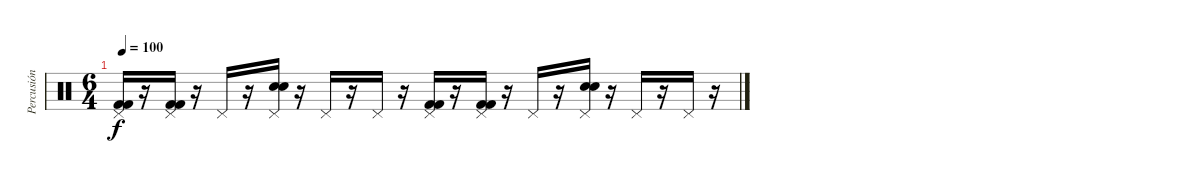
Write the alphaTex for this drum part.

\track ("Percusión" "Percusión") {instrument percussion}
\staff {score}
\articulation defaults
\ts (6 4)
\tempo 100
\clef neutral
\ks c
("Pedal Hi-Hat (hit)" "Kick (hit) 2" "Kick (hit) 2").16{dy f} r.16 ("Pedal Hi-Hat (hit)" "Kick (hit) 2" "Kick (hit) 2").16 r.16 "Pedal Hi-Hat (hit)".16 r.16 ("Pedal Hi-Hat (hit)" "Electric Snare (hit)" "Electric Snare (hit)").16 r.16 "Pedal Hi-Hat (hit)".16 r.16 "Pedal Hi-Hat (hit)".16 r.16 ("Pedal Hi-Hat (hit)" "Kick (hit) 2" "Kick (hit) 2").16 r.16 ("Pedal Hi-Hat (hit)" "Kick (hit) 2" "Kick (hit) 2").16 r.16 "Pedal Hi-Hat (hit)".16 r.16 ("Pedal Hi-Hat (hit)" "Electric Snare (hit)" "Electric Snare (hit)").16 r.16 "Pedal Hi-Hat (hit)".16 r.16 "Pedal Hi-Hat (hit)".16 r.16
